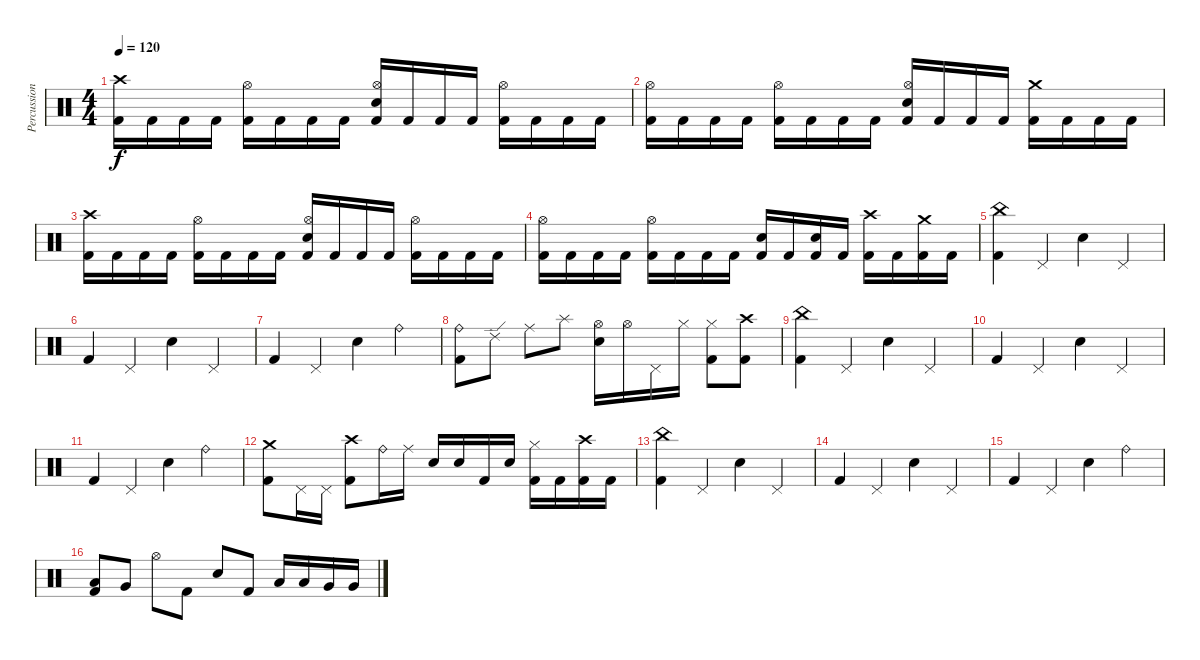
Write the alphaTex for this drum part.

\track ("Percussion" "Percussion") {instrument percussion}
\staff {score}
\articulation defaults
\ts (4 4)
\tempo 120
\clef neutral
\ks c
("Crash high (hit)" "Kick (hit) 2").16{dy f} "Kick (hit) 2".16 "Kick (hit) 2".16 "Kick (hit) 2".16 ("Hi-Hat (open)" "Kick (hit) 2").16 "Kick (hit) 2".16 "Kick (hit) 2".16 "Kick (hit) 2".16 ("Hi-Hat (open)" "Electric Snare (hit)" "Kick (hit) 2").16 "Kick (hit) 2".16 "Kick (hit) 2".16 "Kick (hit) 2".16 ("Hi-Hat (open)" "Kick (hit) 2").16 "Kick (hit) 2".16 "Kick (hit) 2".16 "Kick (hit) 2".16 |
("Hi-Hat (open)" "Kick (hit) 2").16 "Kick (hit) 2".16 "Kick (hit) 2".16 "Kick (hit) 2".16 ("Hi-Hat (open)" "Kick (hit) 2").16 "Kick (hit) 2".16 "Kick (hit) 2".16 "Kick (hit) 2".16 ("Hi-Hat (open)" "Electric Snare (hit)" "Kick (hit) 2").16 "Kick (hit) 2".16 "Kick (hit) 2".16 "Kick (hit) 2".16 ("Crash medium (hit)" "Kick (hit) 2").16 "Kick (hit) 2".16 "Kick (hit) 2".16 "Kick (hit) 2".16 |
("Crash high (hit)" "Kick (hit) 2").16 "Kick (hit) 2".16 "Kick (hit) 2".16 "Kick (hit) 2".16 ("Hi-Hat (open)" "Kick (hit) 2").16 "Kick (hit) 2".16 "Kick (hit) 2".16 "Kick (hit) 2".16 ("Hi-Hat (open)" "Electric Snare (hit)" "Kick (hit) 2").16 "Kick (hit) 2".16 "Kick (hit) 2".16 "Kick (hit) 2".16 ("Hi-Hat (open)" "Kick (hit) 2").16 "Kick (hit) 2".16 "Kick (hit) 2".16 "Kick (hit) 2".16 |
("Hi-Hat (open)" "Kick (hit) 2").16 "Kick (hit) 2".16 "Kick (hit) 2".16 "Kick (hit) 2".16 ("Hi-Hat (open)" "Kick (hit) 2").16 "Kick (hit) 2".16 "Kick (hit) 2".16 "Kick (hit) 2".16 ("Electric Snare (hit)" "Kick (hit) 2").16 "Kick (hit) 2".16 ("Electric Snare (hit)" "Kick (hit) 2").16 "Kick (hit) 2".16 ("Crash high (hit)" "Kick (hit) 2").16 "Kick (hit) 2".16 ("Crash medium (hit)" "Kick (hit) 2").16 "Kick (hit) 2".16 |
("China (hit)" "Kick (hit) 2").4 "Pedal Hi-Hat (hit)".4 "Electric Snare (hit)".4 "Pedal Hi-Hat (hit)".4 |
"Kick (hit) 2".4 "Pedal Hi-Hat (hit)".4 "Electric Snare (hit)".4 "Pedal Hi-Hat (hit)".4 |
"Kick (hit) 2".4 "Pedal Hi-Hat (hit)".4 "Electric Snare (hit)".4 "Ride (bell)".4 |
("Ride (bell)" "Kick (hit) 2").8 "Ride (edge) 2".8 "Ride (middle)".8 "Splash (hit)".8 ("Hi-Hat (open)" "Electric Snare (hit)").16 "Hi-Hat (open)".16 "Pedal Hi-Hat (hit)".16 "Hi-Hat (closed)".16 ("Hi-Hat (closed)" "Kick (hit) 2").8 ("Crash high (hit)" "Kick (hit) 2").8 |
("China (hit)" "Kick (hit) 2").4 "Pedal Hi-Hat (hit)".4 "Electric Snare (hit)".4 "Pedal Hi-Hat (hit)".4 |
"Kick (hit) 2".4 "Pedal Hi-Hat (hit)".4 "Electric Snare (hit)".4 "Pedal Hi-Hat (hit)".4 |
"Kick (hit) 2".4 "Pedal Hi-Hat (hit)".4 "Electric Snare (hit)".4 "Ride (bell)".4 |
("Crash medium (hit)" "Kick (hit) 2").8 "Pedal Hi-Hat (hit)".16 "Pedal Hi-Hat (hit)".16 ("Crash high (hit)" "Kick (hit) 2").8 "Ride (bell)".16 "Ride (middle)".16 "Electric Snare (hit)".16 "Electric Snare (hit)".16 "Kick (hit) 2".16 "Electric Snare (hit)".16 ("Hi-Hat (closed)" "Kick (hit) 2").16 "Kick (hit) 2".16 ("Crash high (hit)" "Kick (hit) 2").16 "Kick (hit) 2".16 |
("China (hit)" "Kick (hit) 2").4 "Pedal Hi-Hat (hit)".4 "Electric Snare (hit)".4 "Pedal Hi-Hat (hit)".4 |
"Kick (hit) 2".4 "Pedal Hi-Hat (hit)".4 "Electric Snare (hit)".4 "Pedal Hi-Hat (hit)".4 |
"Kick (hit) 2".4 "Pedal Hi-Hat (hit)".4 "Electric Snare (hit)".4 "Ride (bell)".4 |
("Low Tom (hit)" "Kick (hit) 2").8 "Very Low Tom (hit)".8 "Hi-Hat (open)".8 "Kick (hit) 2".8 "Electric Snare (hit)".8 "Kick (hit) 2".8 "Low Tom (hit)".16 "Low Tom (hit)".16 "Very Low Tom (hit)".16 "Very Low Tom (hit)".16
